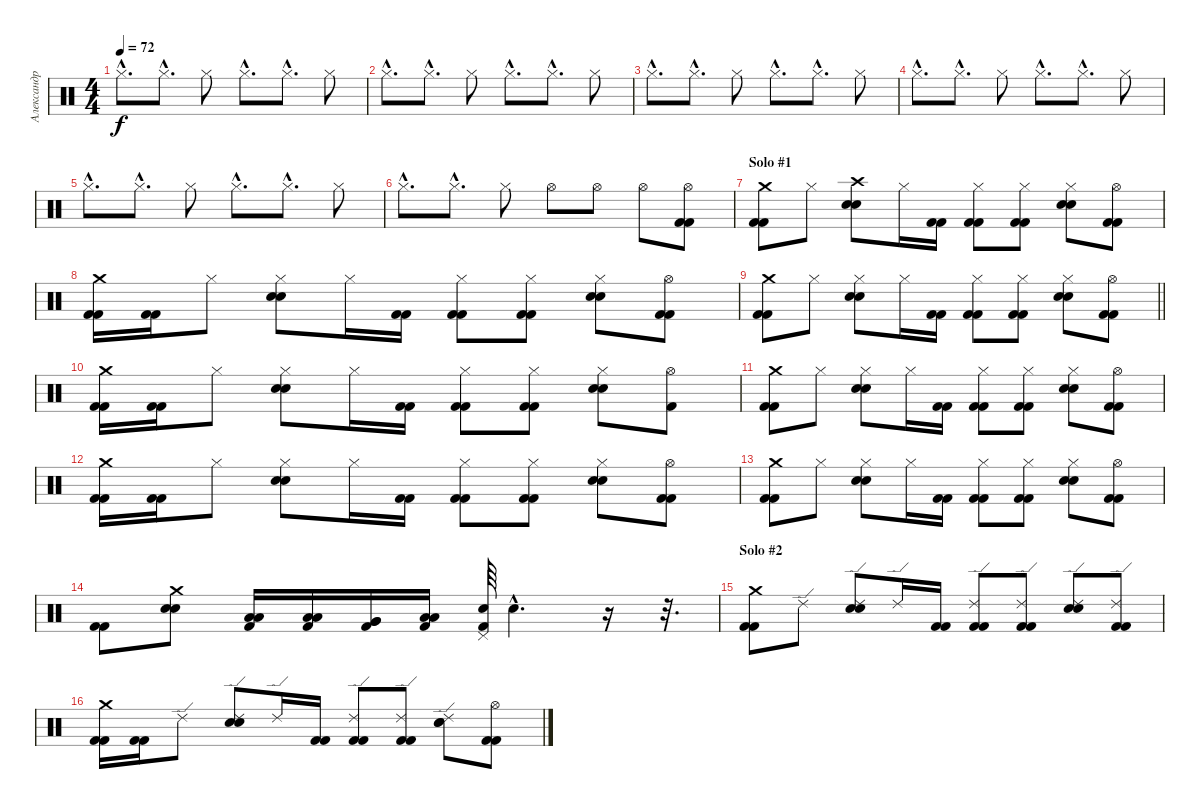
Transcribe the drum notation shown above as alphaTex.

\track ("Александр Манякин (Drums)" "Александр ") {instrument percussion}
\staff {score}
\articulation defaults
\ts (4 4)
\tempo 72
\clef neutral
\ks c "Hi-Hat (closed)"{hac}.8{d dy f} "Hi-Hat (closed)"{hac}.8{d} "Hi-Hat (closed)".8 "Hi-Hat (closed)"{hac}.8{d} "Hi-Hat (closed)"{hac}.8{d} "Hi-Hat (closed)".8
|
"Hi-Hat (closed)"{hac}.8{d} "Hi-Hat (closed)"{hac}.8{d} "Hi-Hat (closed)".8 "Hi-Hat (closed)"{hac}.8{d} "Hi-Hat (closed)"{hac}.8{d} "Hi-Hat (closed)".8 |
"Hi-Hat (closed)"{hac}.8{d} "Hi-Hat (closed)"{hac}.8{d} "Hi-Hat (closed)".8 "Hi-Hat (closed)"{hac}.8{d} "Hi-Hat (closed)"{hac}.8{d} "Hi-Hat (closed)".8 |
"Hi-Hat (closed)"{hac}.8{d} "Hi-Hat (closed)"{hac}.8{d} "Hi-Hat (closed)".8 "Hi-Hat (closed)"{hac}.8{d} "Hi-Hat (closed)"{hac}.8{d} "Hi-Hat (closed)".8 |
"Hi-Hat (closed)"{hac}.8{d} "Hi-Hat (closed)"{hac}.8{d} "Hi-Hat (closed)".8 "Hi-Hat (closed)"{hac}.8{d} "Hi-Hat (closed)"{hac}.8{d} "Hi-Hat (closed)".8 |
"Hi-Hat (closed)"{hac}.8{d} "Hi-Hat (closed)"{hac}.8{d} "Hi-Hat (closed)".8 "Hi-Hat (open)".8 "Hi-Hat (open)".8 "Hi-Hat (open)".8 ("Hi-Hat (open)" "Kick (hit) 2" "Kick (hit) 2").8 |
\section ("" "Solo #1")
("Crash medium (hit)" "Kick (hit) 2" "Kick (hit) 2").8 "Hi-Hat (closed)".8 ("Crash high (hit)" "Electric Snare (hit)" "Electric Snare (hit)").8 "Hi-Hat (closed)".16 ("Kick (hit) 2" "Kick (hit) 2").16 ("Hi-Hat (closed)" "Kick (hit) 2" "Kick (hit) 2").8 ("Hi-Hat (closed)" "Kick (hit) 2" "Kick (hit) 2").8 ("Hi-Hat (closed)" "Electric Snare (hit)" "Electric Snare (hit)").8 ("Hi-Hat (open)" "Kick (hit) 2" "Kick (hit) 2").8 |
("Crash medium (hit)" "Kick (hit) 2" "Kick (hit) 2").16 ("Kick (hit) 2" "Kick (hit) 2").16 "Hi-Hat (closed)".8 ("Hi-Hat (closed)" "Electric Snare (hit)" "Electric Snare (hit)").8 "Hi-Hat (closed)".16 ("Kick (hit) 2" "Kick (hit) 2").16 ("Hi-Hat (closed)" "Kick (hit) 2" "Kick (hit) 2").8 ("Hi-Hat (closed)" "Kick (hit) 2" "Kick (hit) 2").8 ("Hi-Hat (closed)" "Electric Snare (hit)" "Electric Snare (hit)").8 ("Hi-Hat (open)" "Kick (hit) 2" "Kick (hit) 2").8 |
\barLineRight lightlight
("Crash medium (hit)" "Kick (hit) 2" "Kick (hit) 2").8 "Hi-Hat (closed)".8 ("Hi-Hat (closed)" "Electric Snare (hit)" "Electric Snare (hit)").8 "Hi-Hat (closed)".16 ("Kick (hit) 2" "Kick (hit) 2").16 ("Hi-Hat (closed)" "Kick (hit) 2" "Kick (hit) 2").8 ("Hi-Hat (closed)" "Kick (hit) 2" "Kick (hit) 2").8 ("Hi-Hat (closed)" "Electric Snare (hit)" "Electric Snare (hit)").8 ("Hi-Hat (open)" "Kick (hit) 2" "Kick (hit) 2").8 |
("Crash medium (hit)" "Kick (hit) 2" "Kick (hit) 2").16 ("Kick (hit) 2" "Kick (hit) 2").16 "Hi-Hat (closed)".8 ("Hi-Hat (closed)" "Electric Snare (hit)" "Electric Snare (hit)").8 "Hi-Hat (closed)".16 ("Kick (hit) 2" "Kick (hit) 2").16 ("Hi-Hat (closed)" "Kick (hit) 2" "Kick (hit) 2").8 ("Hi-Hat (closed)" "Kick (hit) 2" "Kick (hit) 2").8 ("Hi-Hat (closed)" "Electric Snare (hit)" "Electric Snare (hit)").8 ("Hi-Hat (open)" "Kick (hit) 2").8 |
("Crash medium (hit)" "Kick (hit) 2" "Kick (hit) 2").8 "Hi-Hat (closed)".8 ("Hi-Hat (closed)" "Electric Snare (hit)" "Electric Snare (hit)").8 "Hi-Hat (closed)".16 ("Kick (hit) 2" "Kick (hit) 2").16 ("Hi-Hat (closed)" "Kick (hit) 2" "Kick (hit) 2").8 ("Hi-Hat (closed)" "Kick (hit) 2" "Kick (hit) 2").8 ("Hi-Hat (closed)" "Electric Snare (hit)" "Electric Snare (hit)").8 ("Hi-Hat (open)" "Kick (hit) 2" "Kick (hit) 2").8 |
("Crash medium (hit)" "Kick (hit) 2" "Kick (hit) 2").16 ("Kick (hit) 2" "Kick (hit) 2").16 "Hi-Hat (closed)".8 ("Hi-Hat (closed)" "Electric Snare (hit)" "Electric Snare (hit)").8 "Hi-Hat (closed)".16 ("Kick (hit) 2" "Kick (hit) 2").16 ("Hi-Hat (closed)" "Kick (hit) 2" "Kick (hit) 2").8 ("Hi-Hat (closed)" "Kick (hit) 2" "Kick (hit) 2").8 ("Hi-Hat (closed)" "Electric Snare (hit)" "Electric Snare (hit)").8 ("Hi-Hat (open)" "Kick (hit) 2" "Kick (hit) 2").8 |
("Crash medium (hit)" "Kick (hit) 2" "Kick (hit) 2").8 "Hi-Hat (closed)".8 ("Hi-Hat (closed)" "Electric Snare (hit)" "Electric Snare (hit)").8 "Hi-Hat (closed)".16 ("Kick (hit) 2" "Kick (hit) 2").16 ("Hi-Hat (closed)" "Kick (hit) 2" "Kick (hit) 2").8 ("Hi-Hat (closed)" "Kick (hit) 2" "Kick (hit) 2").8 ("Hi-Hat (closed)" "Electric Snare (hit)" "Electric Snare (hit)").8 ("Hi-Hat (open)" "Kick (hit) 2" "Kick (hit) 2").8 |
("Kick (hit) 2" "Kick (hit) 2").8 ("Crash medium (hit)" "Electric Snare (hit)" "Electric Snare (hit)").8 ("Low Tom (hit)" "Low Tom (hit)" "Kick (hit) 2").16 ("Low Tom (hit)" "Low Tom (hit)" "Kick (hit) 2").16 ("Very Low Tom (hit)" "Very Low Tom (hit)" "Kick (hit) 2").16 ("Low Floor Tom (hit)" "Low Floor Tom (hit)" "Kick (hit) 2").16 ("Pedal Hi-Hat (hit)" "Electric Snare (hit)" "Kick (hit) 2").64 "Electric Snare (hit)"{hac}.4{d} r.16 r.32{d} |
\section ("" "Solo #2")
("Crash medium (hit)" "Kick (hit) 2" "Kick (hit) 2").8 "Ride (edge) 2".8 ("Ride (edge) 2" "Electric Snare (hit)" "Electric Snare (hit)").8 "Ride (edge) 2".16 ("Kick (hit) 2" "Kick (hit) 2").16 ("Ride (edge) 2" "Kick (hit) 2" "Kick (hit) 2").8 ("Ride (edge) 2" "Kick (hit) 2" "Kick (hit) 2").8 ("Ride (edge) 2" "Electric Snare (hit)" "Electric Snare (hit)").8 ("Ride (edge) 2" "Kick (hit) 2" "Kick (hit) 2").8 |
("Crash medium (hit)" "Kick (hit) 2" "Kick (hit) 2").16 ("Kick (hit) 2" "Kick (hit) 2").16 "Ride (edge) 2".8 ("Ride (edge) 2" "Electric Snare (hit)" "Electric Snare (hit)").8 "Ride (edge) 2".16 ("Kick (hit) 2" "Kick (hit) 2").16 ("Ride (edge) 2" "Kick (hit) 2" "Kick (hit) 2").8 ("Ride (edge) 2" "Kick (hit) 2" "Kick (hit) 2").8 ("Ride (edge) 2" "Electric Snare (hit)" "Electric Snare (hit)").8 ("Hi-Hat (open)" "Kick (hit) 2" "Kick (hit) 2").8
